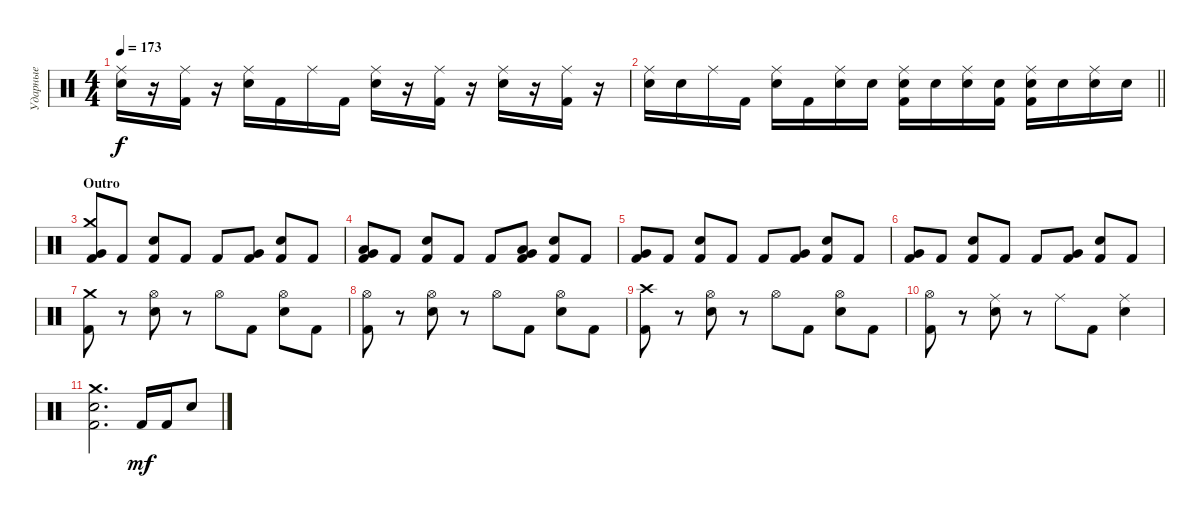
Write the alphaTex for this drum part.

\track ("Ударные" "Ударные") {instrument percussion}
\staff {score}
\articulation defaults
\ts (4 4)
\tempo 173
\clef neutral
\ks c
("Ride (middle)" "Snare (hit) 2").16{dy f} r.16 ("Ride (middle)" "Kick (hit) 2").16 r.16 ("Ride (middle)" "Snare (hit) 2").16 "Kick (hit) 2".16 "Ride (middle)".16 "Kick (hit) 2".16 ("Ride (middle)" "Snare (hit) 2").16 r.16 ("Ride (middle)" "Kick (hit) 2").16 r.16 ("Ride (middle)" "Snare (hit) 2").16 r.16 ("Ride (middle)" "Kick (hit) 2").16 r.16 |
\barLineRight lightlight
("Ride (middle)" "Snare (hit) 2").16 "Snare (hit) 2".16 "Ride (middle)".16 "Kick (hit) 2".16 ("Ride (middle)" "Snare (hit) 2").16 "Kick (hit) 2".16 ("Ride (middle)" "Snare (hit) 2").16 "Snare (hit) 2".16 ("Ride (middle)" "Snare (hit) 2" "Kick (hit) 2").16 "Snare (hit) 2".16 ("Ride (middle)" "Snare (hit) 2").16 ("Snare (hit) 2" "Kick (hit) 2").16 ("Ride (middle)" "Snare (hit) 2" "Kick (hit) 2").16 "Snare (hit) 2".16 ("Ride (middle)" "Snare (hit) 2").16 "Snare (hit) 2".16 |
\section ("" "Outro")
("Crash medium (hit)" "Very Low Tom (hit)" "Kick (hit) 2").8 "Kick (hit) 2".8 ("Snare (hit) 2" "Kick (hit) 2").8 "Kick (hit) 2".8 "Kick (hit) 2".8 ("Very Low Tom (hit)" "Kick (hit) 2").8 ("Snare (hit) 2" "Kick (hit) 2").8 "Kick (hit) 2".8 |
("Low Floor Tom (hit)" "Very Low Tom (hit)" "Kick (hit) 2").8 "Kick (hit) 2".8 ("Snare (hit) 2" "Kick (hit) 2").8 "Kick (hit) 2".8 "Kick (hit) 2".8 ("Low Floor Tom (hit)" "Very Low Tom (hit)" "Kick (hit) 2").8 ("Snare (hit) 2" "Kick (hit) 2").8 "Kick (hit) 2".8 |
("Very Low Tom (hit)" "Kick (hit) 2").8 "Kick (hit) 2".8 ("Snare (hit) 2" "Kick (hit) 2").8 "Kick (hit) 2".8 "Kick (hit) 2".8 ("Very Low Tom (hit)" "Kick (hit) 2").8 ("Snare (hit) 2" "Kick (hit) 2").8 "Kick (hit) 2".8 |
("Very Low Tom (hit)" "Kick (hit) 2").8 "Kick (hit) 2".8 ("Snare (hit) 2" "Kick (hit) 2").8 "Kick (hit) 2".8 "Kick (hit) 2".8 ("Very Low Tom (hit)" "Kick (hit) 2").8 ("Snare (hit) 2" "Kick (hit) 2").8 "Kick (hit) 2".8 |
("Crash medium (hit)" "Kick (hit) 2").8 r.8 ("Hi-Hat (open)" "Snare (hit) 2").8 r.8 "Hi-Hat (open)".8 "Kick (hit) 2".8 ("Hi-Hat (open)" "Snare (hit) 2").8 "Kick (hit) 2".8 |
("Hi-Hat (open)" "Kick (hit) 2").8 r.8 ("Hi-Hat (open)" "Snare (hit) 2").8 r.8 "Hi-Hat (open)".8 "Kick (hit) 2".8 ("Hi-Hat (open)" "Snare (hit) 2").8 "Kick (hit) 2".8 |
("Crash high (hit)" "Kick (hit) 2").8 r.8 ("Hi-Hat (open)" "Snare (hit) 2").8 r.8 "Hi-Hat (open)".8 "Kick (hit) 2".8 ("Hi-Hat (open)" "Snare (hit) 2").8 "Kick (hit) 2".8 |
("Hi-Hat (open)" "Kick (hit) 2").8 r.8 ("Ride (middle)" "Snare (hit) 2").8 r.8 "Ride (middle)".8 "Kick (hit) 2".8 ("Ride (middle)" "Snare (hit) 2").4 |
("Crash medium (hit)" "Snare (hit) 2" "Kick (hit) 2").2{d} "Kick (hit) 2".16{dy mf} "Kick (hit) 2".16 "Snare (hit) 2".8
